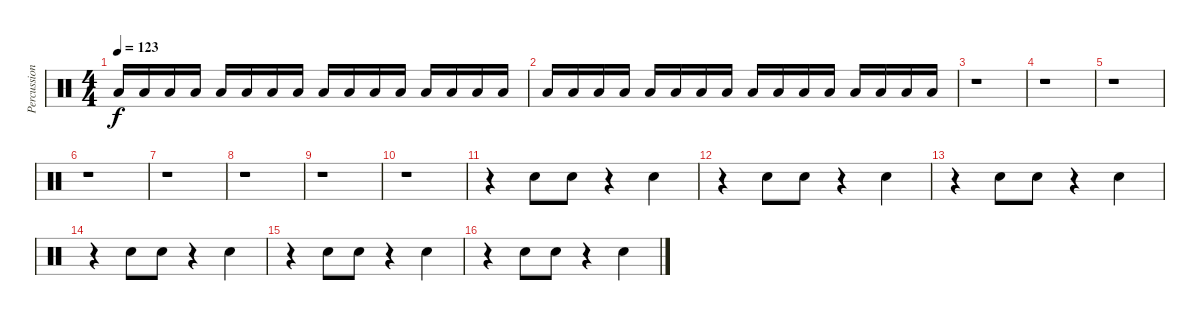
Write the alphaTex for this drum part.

\track ("Percussion" "Percussion") {instrument percussion}
\staff {score}
\articulation defaults
\ts (4 4)
\tempo 123
\clef neutral
\ks c "Low Tom (hit)".16{dy f volume 16} "Low Tom (hit)".16 "Low Tom (hit)".16 "Low Tom (hit)".16 "Low Tom (hit)".16 "Low Tom (hit)".16 "Low Tom (hit)".16 "Low Tom (hit)".16 "Low Tom (hit)".16 "Low Tom (hit)".16 "Low Tom (hit)".16 "Low Tom (hit)".16 "Low Tom (hit)".16 "Low Tom (hit)".16 "Low Tom (hit)".16 "Low Tom (hit)".16
|
"Low Tom (hit)".16 "Low Tom (hit)".16 "Low Tom (hit)".16 "Low Tom (hit)".16 "Low Tom (hit)".16 "Low Tom (hit)".16 "Low Tom (hit)".16 "Low Tom (hit)".16 "Low Tom (hit)".16 "Low Tom (hit)".16 "Low Tom (hit)".16 "Low Tom (hit)".16 "Low Tom (hit)".16 "Low Tom (hit)".16 "Low Tom (hit)".16 "Low Tom (hit)".16 |
r.1 |
r.1 |
r.1 |
r.1 |
r.1 |
r.1 |
r.1 |
r.1 |
r.4 "Hand Clap (hit)".8 "Hand Clap (hit)".8 r.4 "Hand Clap (hit)".4 |
r.4 "Hand Clap (hit)".8 "Hand Clap (hit)".8 r.4 "Hand Clap (hit)".4 |
r.4 "Hand Clap (hit)".8 "Hand Clap (hit)".8 r.4 "Hand Clap (hit)".4 |
r.4 "Hand Clap (hit)".8 "Hand Clap (hit)".8 r.4 "Hand Clap (hit)".4 |
r.4 "Hand Clap (hit)".8 "Hand Clap (hit)".8 r.4 "Hand Clap (hit)".4 |
r.4 "Hand Clap (hit)".8 "Hand Clap (hit)".8 r.4 "Hand Clap (hit)".4
